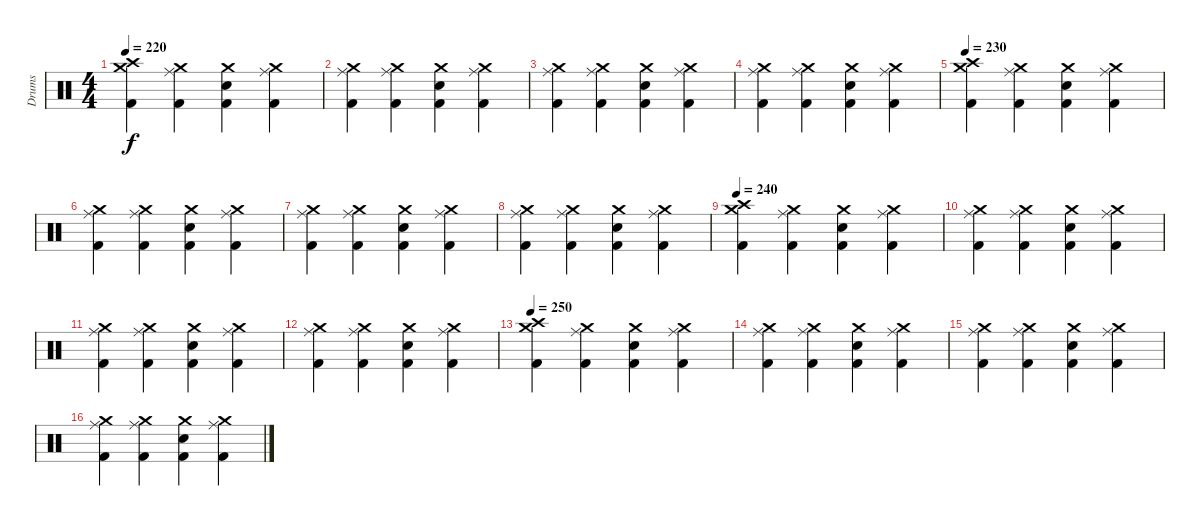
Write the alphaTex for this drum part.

\track ("Drums" "Drums") {instrument percussion}
\staff {score}
\articulation defaults
\ts (4 4)
\tempo 220
\clef neutral
\ks c
("Crash medium (hit)" "Crash high (hit)" "Kick (hit) 2").4{dy f} ("Crash medium (hit)" "Ride (middle)" "Kick (hit) 2").4 ("Crash medium (hit)" "Snare (hit) 2" "Kick (hit) 2").4 ("Crash medium (hit)" "Ride (middle)" "Kick (hit) 2").4 |
("Crash medium (hit)" "Ride (middle)" "Kick (hit) 2").4 ("Crash medium (hit)" "Ride (middle)" "Kick (hit) 2").4 ("Crash medium (hit)" "Snare (hit) 2" "Kick (hit) 2").4 ("Crash medium (hit)" "Ride (middle)" "Kick (hit) 2").4 |
("Crash medium (hit)" "Ride (middle)" "Kick (hit) 2").4 ("Crash medium (hit)" "Ride (middle)" "Kick (hit) 2").4 ("Crash medium (hit)" "Snare (hit) 2" "Kick (hit) 2").4 ("Crash medium (hit)" "Ride (middle)" "Kick (hit) 2").4 |
("Crash medium (hit)" "Ride (middle)" "Kick (hit) 2").4 ("Crash medium (hit)" "Ride (middle)" "Kick (hit) 2").4 ("Crash medium (hit)" "Snare (hit) 2" "Kick (hit) 2").4 ("Crash medium (hit)" "Ride (middle)" "Kick (hit) 2").4 |
\tempo 230
("Crash medium (hit)" "Crash high (hit)" "Kick (hit) 2").4 ("Crash medium (hit)" "Ride (middle)" "Kick (hit) 2").4 ("Crash medium (hit)" "Snare (hit) 2" "Kick (hit) 2").4 ("Crash medium (hit)" "Ride (middle)" "Kick (hit) 2").4 |
("Crash medium (hit)" "Ride (middle)" "Kick (hit) 2").4 ("Crash medium (hit)" "Ride (middle)" "Kick (hit) 2").4 ("Crash medium (hit)" "Snare (hit) 2" "Kick (hit) 2").4 ("Crash medium (hit)" "Ride (middle)" "Kick (hit) 2").4 |
("Crash medium (hit)" "Ride (middle)" "Kick (hit) 2").4 ("Crash medium (hit)" "Ride (middle)" "Kick (hit) 2").4 ("Crash medium (hit)" "Snare (hit) 2" "Kick (hit) 2").4 ("Crash medium (hit)" "Ride (middle)" "Kick (hit) 2").4 |
("Crash medium (hit)" "Ride (middle)" "Kick (hit) 2").4 ("Crash medium (hit)" "Ride (middle)" "Kick (hit) 2").4 ("Crash medium (hit)" "Snare (hit) 2" "Kick (hit) 2").4 ("Crash medium (hit)" "Ride (middle)" "Kick (hit) 2").4 |
\tempo 240
("Crash medium (hit)" "Crash high (hit)" "Kick (hit) 2").4 ("Crash medium (hit)" "Ride (middle)" "Kick (hit) 2").4 ("Crash medium (hit)" "Snare (hit) 2" "Kick (hit) 2").4 ("Crash medium (hit)" "Ride (middle)" "Kick (hit) 2").4 |
("Crash medium (hit)" "Ride (middle)" "Kick (hit) 2").4 ("Crash medium (hit)" "Ride (middle)" "Kick (hit) 2").4 ("Crash medium (hit)" "Snare (hit) 2" "Kick (hit) 2").4 ("Crash medium (hit)" "Ride (middle)" "Kick (hit) 2").4 |
("Crash medium (hit)" "Ride (middle)" "Kick (hit) 2").4 ("Crash medium (hit)" "Ride (middle)" "Kick (hit) 2").4 ("Crash medium (hit)" "Snare (hit) 2" "Kick (hit) 2").4 ("Crash medium (hit)" "Ride (middle)" "Kick (hit) 2").4 |
("Crash medium (hit)" "Ride (middle)" "Kick (hit) 2").4 ("Crash medium (hit)" "Ride (middle)" "Kick (hit) 2").4 ("Crash medium (hit)" "Snare (hit) 2" "Kick (hit) 2").4 ("Crash medium (hit)" "Ride (middle)" "Kick (hit) 2").4 |
\tempo 250
("Crash medium (hit)" "Crash high (hit)" "Kick (hit) 2").4 ("Crash medium (hit)" "Ride (middle)" "Kick (hit) 2").4 ("Crash medium (hit)" "Snare (hit) 2" "Kick (hit) 2").4 ("Crash medium (hit)" "Ride (middle)" "Kick (hit) 2").4 |
("Crash medium (hit)" "Ride (middle)" "Kick (hit) 2").4 ("Crash medium (hit)" "Ride (middle)" "Kick (hit) 2").4 ("Crash medium (hit)" "Snare (hit) 2" "Kick (hit) 2").4 ("Crash medium (hit)" "Ride (middle)" "Kick (hit) 2").4 |
("Crash medium (hit)" "Ride (middle)" "Kick (hit) 2").4 ("Crash medium (hit)" "Ride (middle)" "Kick (hit) 2").4 ("Crash medium (hit)" "Snare (hit) 2" "Kick (hit) 2").4 ("Crash medium (hit)" "Ride (middle)" "Kick (hit) 2").4 |
("Crash medium (hit)" "Ride (middle)" "Kick (hit) 2").4 ("Crash medium (hit)" "Ride (middle)" "Kick (hit) 2").4 ("Crash medium (hit)" "Snare (hit) 2" "Kick (hit) 2").4 ("Crash medium (hit)" "Ride (middle)" "Kick (hit) 2").4
